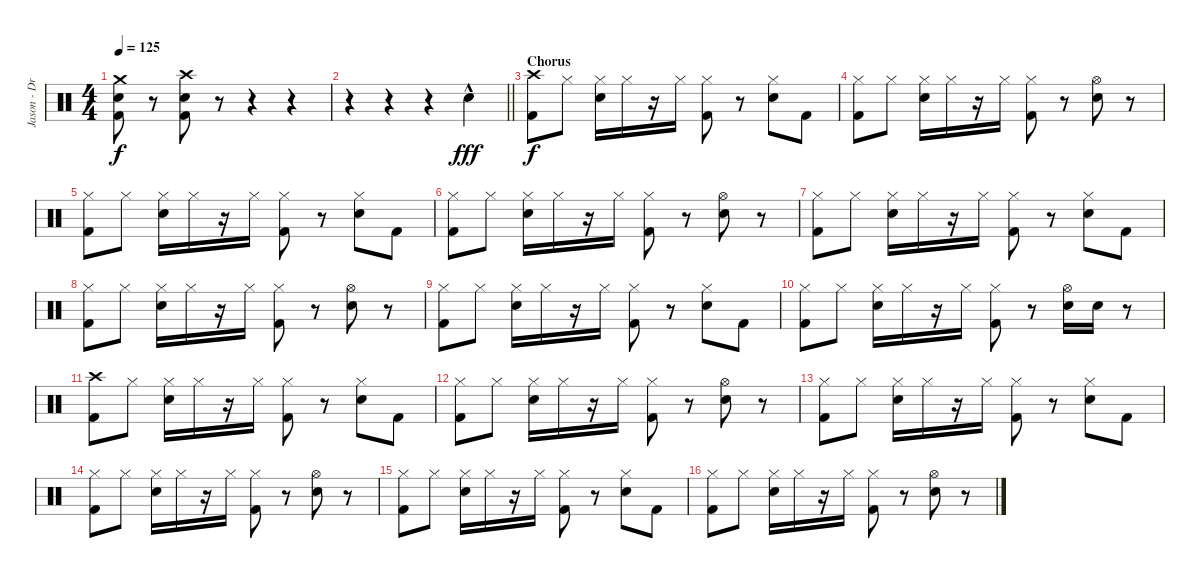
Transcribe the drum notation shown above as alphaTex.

\track ("Jason - Drums" "Jason - Dr") {instrument percussion}
\staff {score}
\articulation defaults
\ts (4 4)
\tempo 125
\clef neutral
\ks c
("Crash medium (hit)" "Electric Snare (hit)" "Kick (hit) 2").8{dy f} r.8 ("Crash high (hit)" "Electric Snare (hit)" "Kick (hit) 2").8 r.8 r.4 r.4 |
\barLineRight lightlight
r.4 r.4 r.4 "Snare (hit) 2"{hac}.4{dy fff} |
\section ("" "Chorus")
("Crash high (hit)" "Kick (hit) 2").8{dy f} "Hi-Hat (closed)".8 ("Hi-Hat (closed)" "Electric Snare (hit)").16 "Hi-Hat (closed)".16 r.16 "Hi-Hat (closed)".16 ("Hi-Hat (closed)" "Kick (hit) 2").8 r.8 ("Hi-Hat (closed)" "Electric Snare (hit)").8 "Kick (hit) 2".8 |
("Hi-Hat (closed)" "Kick (hit) 2").8 "Hi-Hat (closed)".8 ("Hi-Hat (closed)" "Electric Snare (hit)").16 "Hi-Hat (closed)".16 r.16 "Hi-Hat (closed)".16 ("Hi-Hat (closed)" "Kick (hit) 2").8 r.8 ("Hi-Hat (open)" "Electric Snare (hit)").8 r.8 |
("Hi-Hat (closed)" "Kick (hit) 2").8 "Hi-Hat (closed)".8 ("Hi-Hat (closed)" "Electric Snare (hit)").16 "Hi-Hat (closed)".16 r.16 "Hi-Hat (closed)".16 ("Hi-Hat (closed)" "Kick (hit) 2").8 r.8 ("Hi-Hat (closed)" "Electric Snare (hit)").8 "Kick (hit) 2".8 |
("Hi-Hat (closed)" "Kick (hit) 2").8 "Hi-Hat (closed)".8 ("Hi-Hat (closed)" "Electric Snare (hit)").16 "Hi-Hat (closed)".16 r.16 "Hi-Hat (closed)".16 ("Hi-Hat (closed)" "Kick (hit) 2").8 r.8 ("Hi-Hat (open)" "Electric Snare (hit)").8 r.8 |
("Hi-Hat (closed)" "Kick (hit) 2").8 "Hi-Hat (closed)".8 ("Hi-Hat (closed)" "Electric Snare (hit)").16 "Hi-Hat (closed)".16 r.16 "Hi-Hat (closed)".16 ("Hi-Hat (closed)" "Kick (hit) 2").8 r.8 ("Hi-Hat (closed)" "Electric Snare (hit)").8 "Kick (hit) 2".8 |
("Hi-Hat (closed)" "Kick (hit) 2").8 "Hi-Hat (closed)".8 ("Hi-Hat (closed)" "Electric Snare (hit)").16 "Hi-Hat (closed)".16 r.16 "Hi-Hat (closed)".16 ("Hi-Hat (closed)" "Kick (hit) 2").8 r.8 ("Hi-Hat (open)" "Electric Snare (hit)").8 r.8 |
("Hi-Hat (closed)" "Kick (hit) 2").8 "Hi-Hat (closed)".8 ("Hi-Hat (closed)" "Electric Snare (hit)").16 "Hi-Hat (closed)".16 r.16 "Hi-Hat (closed)".16 ("Hi-Hat (closed)" "Kick (hit) 2").8 r.8 ("Hi-Hat (closed)" "Electric Snare (hit)").8 "Kick (hit) 2".8 |
("Hi-Hat (closed)" "Kick (hit) 2").8 "Hi-Hat (closed)".8 ("Hi-Hat (closed)" "Electric Snare (hit)").16 "Hi-Hat (closed)".16 r.16 "Hi-Hat (closed)".16 ("Hi-Hat (closed)" "Kick (hit) 2").8 r.8 ("Hi-Hat (open)" "Electric Snare (hit)").16 "Electric Snare (hit)".16 r.8 |
("Crash high (hit)" "Kick (hit) 2").8 "Hi-Hat (closed)".8 ("Hi-Hat (closed)" "Electric Snare (hit)").16 "Hi-Hat (closed)".16 r.16 "Hi-Hat (closed)".16 ("Hi-Hat (closed)" "Kick (hit) 2").8 r.8 ("Hi-Hat (closed)" "Electric Snare (hit)").8 "Kick (hit) 2".8 |
("Hi-Hat (closed)" "Kick (hit) 2").8 "Hi-Hat (closed)".8 ("Hi-Hat (closed)" "Electric Snare (hit)").16 "Hi-Hat (closed)".16 r.16 "Hi-Hat (closed)".16 ("Hi-Hat (closed)" "Kick (hit) 2").8 r.8 ("Hi-Hat (open)" "Electric Snare (hit)").8 r.8 |
("Hi-Hat (closed)" "Kick (hit) 2").8 "Hi-Hat (closed)".8 ("Hi-Hat (closed)" "Electric Snare (hit)").16 "Hi-Hat (closed)".16 r.16 "Hi-Hat (closed)".16 ("Hi-Hat (closed)" "Kick (hit) 2").8 r.8 ("Hi-Hat (closed)" "Electric Snare (hit)").8 "Kick (hit) 2".8 |
("Hi-Hat (closed)" "Kick (hit) 2").8 "Hi-Hat (closed)".8 ("Hi-Hat (closed)" "Electric Snare (hit)").16 "Hi-Hat (closed)".16 r.16 "Hi-Hat (closed)".16 ("Hi-Hat (closed)" "Kick (hit) 2").8 r.8 ("Hi-Hat (open)" "Electric Snare (hit)").8 r.8 |
("Hi-Hat (closed)" "Kick (hit) 2").8 "Hi-Hat (closed)".8 ("Hi-Hat (closed)" "Electric Snare (hit)").16 "Hi-Hat (closed)".16 r.16 "Hi-Hat (closed)".16 ("Hi-Hat (closed)" "Kick (hit) 2").8 r.8 ("Hi-Hat (closed)" "Electric Snare (hit)").8 "Kick (hit) 2".8 |
("Hi-Hat (closed)" "Kick (hit) 2").8 "Hi-Hat (closed)".8 ("Hi-Hat (closed)" "Electric Snare (hit)").16 "Hi-Hat (closed)".16 r.16 "Hi-Hat (closed)".16 ("Hi-Hat (closed)" "Kick (hit) 2").8 r.8 ("Hi-Hat (open)" "Electric Snare (hit)").8 r.8
